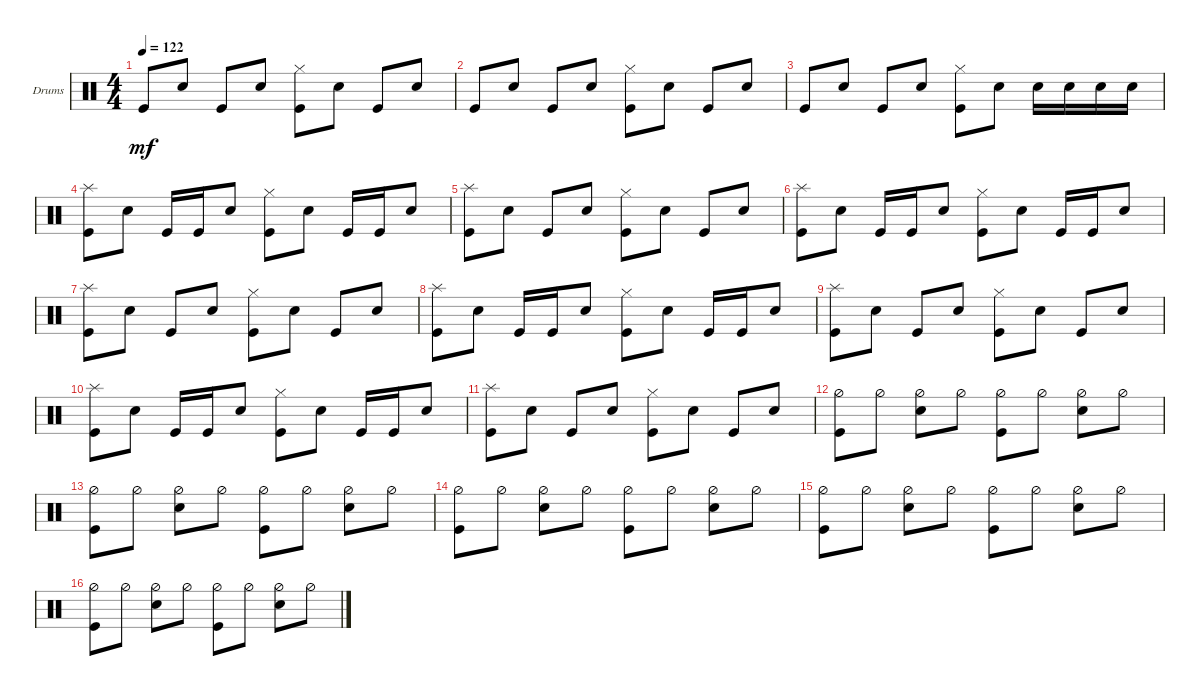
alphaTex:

\defaultSystemsLayout 4
\bracketExtendMode groupsimilarinstruments
\firstSystemTrackNameOrientation horizontal
\otherSystemsTrackNameOrientation horizontal
\track ("Drumkit" "Drums") {instrument percussion}
\staff {score}
\articulation defaults
\ts (4 4)
\tempo 122
\clef neutral
\ks c "Kick (hit)".8{dy mf} "Snare (hit) 2".8 "Kick (hit)".8 "Snare (hit) 2".8
("Kick (hit)" "Hi-Hat (closed)").8 "Snare (hit) 2".8 "Kick (hit)".8 "Snare (hit) 2".8 |
"Kick (hit)".8 "Snare (hit) 2".8 "Kick (hit)".8 "Snare (hit) 2".8 ("Kick (hit)" "Hi-Hat (closed)").8 "Snare (hit) 2".8 "Kick (hit)".8 "Snare (hit) 2".8 |
"Kick (hit)".8 "Snare (hit) 2".8 "Kick (hit)".8 "Snare (hit) 2".8 ("Kick (hit)" "Hi-Hat (closed)").8 "Snare (hit) 2".8 "Snare (hit) 2".16 "Snare (hit) 2".16 "Snare (hit) 2".16 "Snare (hit) 2".16 |
("Kick (hit)" "Splash (hit)").8 "Snare (hit) 2".8 "Kick (hit)".16 "Kick (hit)".16 "Snare (hit) 2".8 ("Kick (hit)" "Hi-Hat (closed)").8 "Snare (hit) 2".8 "Kick (hit)".16 "Kick (hit)".16 "Snare (hit) 2".8 |
("Kick (hit)" "Splash (hit)").8 "Snare (hit) 2".8 "Kick (hit)".8 "Snare (hit) 2".8 ("Kick (hit)" "Hi-Hat (closed)").8 "Snare (hit) 2".8 "Kick (hit)".8 "Snare (hit) 2".8 |
("Kick (hit)" "Splash (hit)").8 "Snare (hit) 2".8 "Kick (hit)".16 "Kick (hit)".16 "Snare (hit) 2".8 ("Kick (hit)" "Hi-Hat (closed)").8 "Snare (hit) 2".8 "Kick (hit)".16 "Kick (hit)".16 "Snare (hit) 2".8 |
("Kick (hit)" "Splash (hit)").8 "Snare (hit) 2".8 "Kick (hit)".8 "Snare (hit) 2".8 ("Kick (hit)" "Hi-Hat (closed)").8 "Snare (hit) 2".8 "Kick (hit)".8 "Snare (hit) 2".8 |
("Kick (hit)" "Splash (hit)").8 "Snare (hit) 2".8 "Kick (hit)".16 "Kick (hit)".16 "Snare (hit) 2".8 ("Kick (hit)" "Hi-Hat (closed)").8 "Snare (hit) 2".8 "Kick (hit)".16 "Kick (hit)".16 "Snare (hit) 2".8 |
("Kick (hit)" "Splash (hit)").8 "Snare (hit) 2".8 "Kick (hit)".8 "Snare (hit) 2".8 ("Kick (hit)" "Hi-Hat (closed)").8 "Snare (hit) 2".8 "Kick (hit)".8 "Snare (hit) 2".8 |
("Kick (hit)" "Splash (hit)").8 "Snare (hit) 2".8 "Kick (hit)".16 "Kick (hit)".16 "Snare (hit) 2".8 ("Kick (hit)" "Hi-Hat (closed)").8 "Snare (hit) 2".8 "Kick (hit)".16 "Kick (hit)".16 "Snare (hit) 2".8 |
("Kick (hit)" "Splash (hit)").8 "Snare (hit) 2".8 "Kick (hit)".8 "Snare (hit) 2".8 ("Kick (hit)" "Hi-Hat (closed)").8 "Snare (hit) 2".8 "Kick (hit)".8 "Snare (hit) 2".8 |
("Hi-Hat (half)" "Kick (hit)").8 "Hi-Hat (half)".8 ("Hi-Hat (half)" "Snare (hit) 2").8 "Hi-Hat (half)".8 ("Hi-Hat (half)" "Kick (hit)").8 "Hi-Hat (half)".8 ("Hi-Hat (half)" "Snare (hit) 2").8 "Hi-Hat (half)".8 |
("Hi-Hat (half)" "Kick (hit)").8 "Hi-Hat (half)".8 ("Hi-Hat (half)" "Snare (hit) 2").8 "Hi-Hat (half)".8 ("Hi-Hat (half)" "Kick (hit)").8 "Hi-Hat (half)".8 ("Hi-Hat (half)" "Snare (hit) 2").8 "Hi-Hat (half)".8 |
("Hi-Hat (half)" "Kick (hit)").8 "Hi-Hat (half)".8 ("Hi-Hat (half)" "Snare (hit) 2").8 "Hi-Hat (half)".8 ("Hi-Hat (half)" "Kick (hit)").8 "Hi-Hat (half)".8 ("Hi-Hat (half)" "Snare (hit) 2").8 "Hi-Hat (half)".8 |
("Hi-Hat (half)" "Kick (hit)").8 "Hi-Hat (half)".8 ("Hi-Hat (half)" "Snare (hit) 2").8 "Hi-Hat (half)".8 ("Hi-Hat (half)" "Kick (hit)").8 "Hi-Hat (half)".8 ("Hi-Hat (half)" "Snare (hit) 2").8 "Hi-Hat (half)".8 |
("Hi-Hat (half)" "Kick (hit)").8 "Hi-Hat (half)".8 ("Hi-Hat (half)" "Snare (hit) 2").8 "Hi-Hat (half)".8 ("Hi-Hat (half)" "Kick (hit)").8 "Hi-Hat (half)".8 ("Hi-Hat (half)" "Snare (hit) 2").8 "Hi-Hat (half)".8
